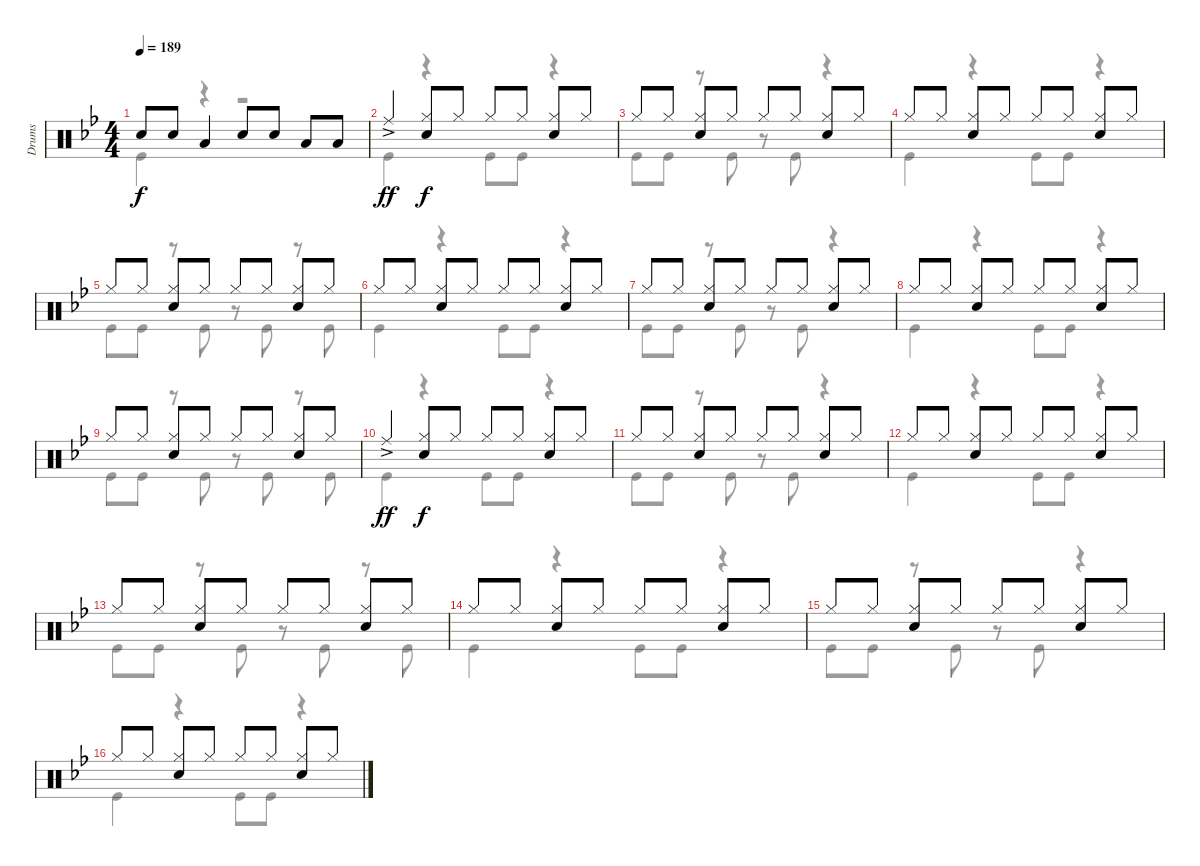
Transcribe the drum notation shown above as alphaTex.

\track ("Drums" "Drums") {instrument percussion}
\staff {score}
\articulation defaults
\voice
\ts (4 4)
\tempo 189
\clef neutral
\ks bb "Snare (hit) 2".8{dy f} "Snare (hit) 2".8 "Low Tom (hit)".4 "Snare (hit) 2".8 "Snare (hit) 2".8 "Low Tom (hit)".8 "Low Tom (hit)".8
|
"Ride (middle)"{ac}.4{dy ff} ("Hi-Hat (closed)" "Snare (hit) 2").8{dy f} "Hi-Hat (closed)".8 "Hi-Hat (closed)".8 "Hi-Hat (closed)".8 ("Hi-Hat (closed)" "Snare (hit) 2").8 "Hi-Hat (closed)".8 |
"Hi-Hat (closed)".8 "Hi-Hat (closed)".8 ("Hi-Hat (closed)" "Snare (hit) 2").8 "Hi-Hat (closed)".8 "Hi-Hat (closed)".8 "Hi-Hat (closed)".8 ("Hi-Hat (closed)" "Snare (hit) 2").8 "Hi-Hat (closed)".8 |
"Hi-Hat (closed)".8 "Hi-Hat (closed)".8 ("Hi-Hat (closed)" "Snare (hit) 2").8 "Hi-Hat (closed)".8 "Hi-Hat (closed)".8 "Hi-Hat (closed)".8 ("Hi-Hat (closed)" "Snare (hit) 2").8 "Hi-Hat (closed)".8 |
"Hi-Hat (closed)".8 "Hi-Hat (closed)".8 ("Hi-Hat (closed)" "Snare (hit) 2").8 "Hi-Hat (closed)".8 "Hi-Hat (closed)".8 "Hi-Hat (closed)".8 ("Hi-Hat (closed)" "Snare (hit) 2").8 "Hi-Hat (closed)".8 |
"Hi-Hat (closed)".8 "Hi-Hat (closed)".8 ("Hi-Hat (closed)" "Snare (hit) 2").8 "Hi-Hat (closed)".8 "Hi-Hat (closed)".8 "Hi-Hat (closed)".8 ("Hi-Hat (closed)" "Snare (hit) 2").8 "Hi-Hat (closed)".8 |
"Hi-Hat (closed)".8 "Hi-Hat (closed)".8 ("Hi-Hat (closed)" "Snare (hit) 2").8 "Hi-Hat (closed)".8 "Hi-Hat (closed)".8 "Hi-Hat (closed)".8 ("Hi-Hat (closed)" "Snare (hit) 2").8 "Hi-Hat (closed)".8 |
"Hi-Hat (closed)".8 "Hi-Hat (closed)".8 ("Hi-Hat (closed)" "Snare (hit) 2").8 "Hi-Hat (closed)".8 "Hi-Hat (closed)".8 "Hi-Hat (closed)".8 ("Hi-Hat (closed)" "Snare (hit) 2").8 "Hi-Hat (closed)".8 |
"Hi-Hat (closed)".8 "Hi-Hat (closed)".8 ("Hi-Hat (closed)" "Snare (hit) 2").8 "Hi-Hat (closed)".8 "Hi-Hat (closed)".8 "Hi-Hat (closed)".8 ("Hi-Hat (closed)" "Snare (hit) 2").8 "Hi-Hat (closed)".8 |
"Ride (middle)"{ac}.4{dy ff} ("Hi-Hat (closed)" "Snare (hit) 2").8{dy f} "Hi-Hat (closed)".8 "Hi-Hat (closed)".8 "Hi-Hat (closed)".8 ("Hi-Hat (closed)" "Snare (hit) 2").8 "Hi-Hat (closed)".8 |
"Hi-Hat (closed)".8 "Hi-Hat (closed)".8 ("Hi-Hat (closed)" "Snare (hit) 2").8 "Hi-Hat (closed)".8 "Hi-Hat (closed)".8 "Hi-Hat (closed)".8 ("Hi-Hat (closed)" "Snare (hit) 2").8 "Hi-Hat (closed)".8 |
"Hi-Hat (closed)".8 "Hi-Hat (closed)".8 ("Hi-Hat (closed)" "Snare (hit) 2").8 "Hi-Hat (closed)".8 "Hi-Hat (closed)".8 "Hi-Hat (closed)".8 ("Hi-Hat (closed)" "Snare (hit) 2").8 "Hi-Hat (closed)".8 |
"Hi-Hat (closed)".8 "Hi-Hat (closed)".8 ("Hi-Hat (closed)" "Snare (hit) 2").8 "Hi-Hat (closed)".8 "Hi-Hat (closed)".8 "Hi-Hat (closed)".8 ("Hi-Hat (closed)" "Snare (hit) 2").8 "Hi-Hat (closed)".8 |
"Hi-Hat (closed)".8 "Hi-Hat (closed)".8 ("Hi-Hat (closed)" "Snare (hit) 2").8 "Hi-Hat (closed)".8 "Hi-Hat (closed)".8 "Hi-Hat (closed)".8 ("Hi-Hat (closed)" "Snare (hit) 2").8 "Hi-Hat (closed)".8 |
"Hi-Hat (closed)".8 "Hi-Hat (closed)".8 ("Hi-Hat (closed)" "Snare (hit) 2").8 "Hi-Hat (closed)".8 "Hi-Hat (closed)".8 "Hi-Hat (closed)".8 ("Hi-Hat (closed)" "Snare (hit) 2").8 "Hi-Hat (closed)".8 |
"Hi-Hat (closed)".8 "Hi-Hat (closed)".8 ("Hi-Hat (closed)" "Snare (hit) 2").8 "Hi-Hat (closed)".8 "Hi-Hat (closed)".8 "Hi-Hat (closed)".8 ("Hi-Hat (closed)" "Snare (hit) 2").8 "Hi-Hat (closed)".8
\voice
\clef neutral
\ottava regular
\simile none
\ks bb "Kick (hit)".4{dy f}
r.4 r.2 |
"Kick (hit)".4 r.4 "Kick (hit)".8 "Kick (hit)".8 r.4 |
"Kick (hit)".8 "Kick (hit)".8 r.8 "Kick (hit)".8 r.8 "Kick (hit)".8 r.4 |
"Kick (hit)".4 r.4 "Kick (hit)".8 "Kick (hit)".8 r.4 |
"Kick (hit)".8 "Kick (hit)".8 r.8 "Kick (hit)".8 r.8 "Kick (hit)".8 r.8 "Kick (hit)".8 |
"Kick (hit)".4 r.4 "Kick (hit)".8 "Kick (hit)".8 r.4 |
"Kick (hit)".8 "Kick (hit)".8 r.8 "Kick (hit)".8 r.8 "Kick (hit)".8 r.4 |
"Kick (hit)".4 r.4 "Kick (hit)".8 "Kick (hit)".8 r.4 |
"Kick (hit)".8 "Kick (hit)".8 r.8 "Kick (hit)".8 r.8 "Kick (hit)".8 r.8 "Kick (hit)".8 |
"Kick (hit)".4 r.4 "Kick (hit)".8 "Kick (hit)".8 r.4 |
"Kick (hit)".8 "Kick (hit)".8 r.8 "Kick (hit)".8 r.8 "Kick (hit)".8 r.4 |
"Kick (hit)".4 r.4 "Kick (hit)".8 "Kick (hit)".8 r.4 |
"Kick (hit)".8 "Kick (hit)".8 r.8 "Kick (hit)".8 r.8 "Kick (hit)".8 r.8 "Kick (hit)".8 |
"Kick (hit)".4 r.4 "Kick (hit)".8 "Kick (hit)".8 r.4 |
"Kick (hit)".8 "Kick (hit)".8 r.8 "Kick (hit)".8 r.8 "Kick (hit)".8 r.4 |
"Kick (hit)".4 r.4 "Kick (hit)".8 "Kick (hit)".8 r.4
